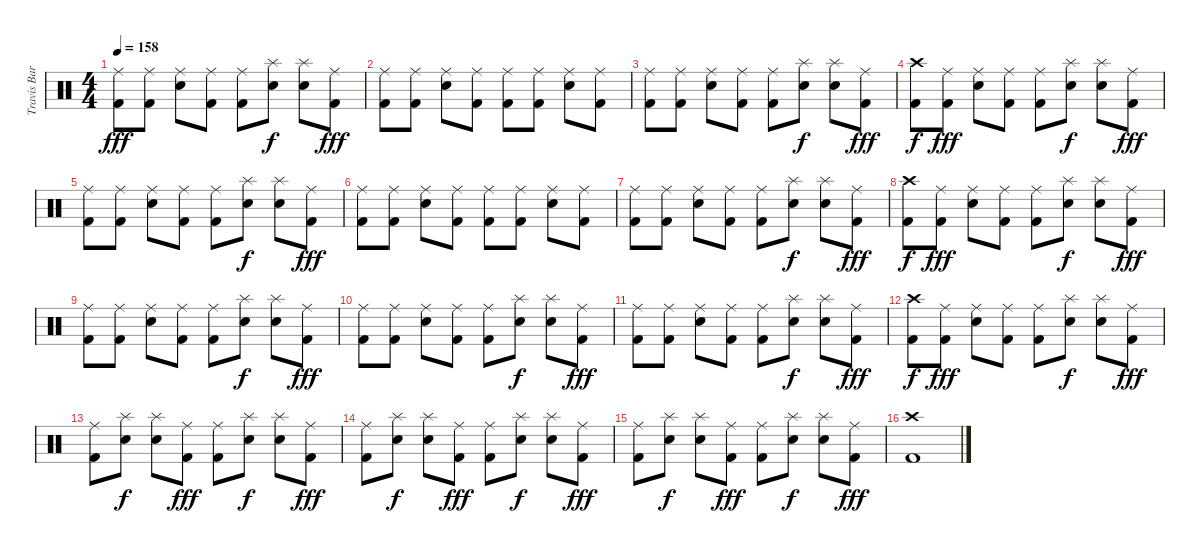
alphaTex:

\track ("Travis Barker - Drums" "Travis Bar") {instrument percussion}
\staff {score}
\articulation defaults
\ts (4 4)
\tempo 158
\clef neutral
\ks c
("Ride (middle)" "Kick (hit) 2").8{dy fff} ("Ride (middle)" "Kick (hit) 2").8 ("Ride (middle)" "Electric Snare (hit)").8 ("Ride (middle)" "Kick (hit) 2").8 ("Ride (middle)" "Kick (hit) 2").8 ("Splash (hit)" "Electric Snare (hit)").8{dy f} ("Splash (hit)" "Electric Snare (hit)").8 ("Ride (middle)" "Kick (hit) 2").8{dy fff} |
("Ride (middle)" "Kick (hit) 2").8 ("Ride (middle)" "Kick (hit) 2").8 ("Ride (middle)" "Electric Snare (hit)").8 ("Ride (middle)" "Kick (hit) 2").8 ("Ride (middle)" "Kick (hit) 2").8 ("Ride (middle)" "Kick (hit) 2").8 ("Ride (middle)" "Electric Snare (hit)").8 ("Ride (middle)" "Kick (hit) 2").8 |
("Ride (middle)" "Kick (hit) 2").8 ("Ride (middle)" "Kick (hit) 2").8 ("Ride (middle)" "Electric Snare (hit)").8 ("Ride (middle)" "Kick (hit) 2").8 ("Ride (middle)" "Kick (hit) 2").8 ("Splash (hit)" "Electric Snare (hit)").8{dy f} ("Splash (hit)" "Electric Snare (hit)").8 ("Ride (middle)" "Kick (hit) 2").8{dy fff} |
("Crash high (hit)" "Kick (hit) 2").8{dy f} ("Ride (middle)" "Kick (hit) 2").8{dy fff} ("Ride (middle)" "Electric Snare (hit)").8 ("Ride (middle)" "Kick (hit) 2").8 ("Ride (middle)" "Kick (hit) 2").8 ("Splash (hit)" "Electric Snare (hit)").8{dy f} ("Splash (hit)" "Electric Snare (hit)").8 ("Ride (middle)" "Kick (hit) 2").8{dy fff} |
("Ride (middle)" "Kick (hit) 2").8 ("Ride (middle)" "Kick (hit) 2").8 ("Ride (middle)" "Electric Snare (hit)").8 ("Ride (middle)" "Kick (hit) 2").8 ("Ride (middle)" "Kick (hit) 2").8 ("Splash (hit)" "Electric Snare (hit)").8{dy f} ("Splash (hit)" "Electric Snare (hit)").8 ("Ride (middle)" "Kick (hit) 2").8{dy fff} |
("Ride (middle)" "Kick (hit) 2").8 ("Ride (middle)" "Kick (hit) 2").8 ("Ride (middle)" "Electric Snare (hit)").8 ("Ride (middle)" "Kick (hit) 2").8 ("Ride (middle)" "Kick (hit) 2").8 ("Ride (middle)" "Kick (hit) 2").8 ("Ride (middle)" "Electric Snare (hit)").8 ("Ride (middle)" "Kick (hit) 2").8 |
("Ride (middle)" "Kick (hit) 2").8 ("Ride (middle)" "Kick (hit) 2").8 ("Ride (middle)" "Electric Snare (hit)").8 ("Ride (middle)" "Kick (hit) 2").8 ("Ride (middle)" "Kick (hit) 2").8 ("Splash (hit)" "Electric Snare (hit)").8{dy f} ("Splash (hit)" "Electric Snare (hit)").8 ("Ride (middle)" "Kick (hit) 2").8{dy fff} |
("Crash high (hit)" "Kick (hit) 2").8{dy f} ("Ride (middle)" "Kick (hit) 2").8{dy fff} ("Ride (middle)" "Electric Snare (hit)").8 ("Ride (middle)" "Kick (hit) 2").8 ("Ride (middle)" "Kick (hit) 2").8 ("Splash (hit)" "Electric Snare (hit)").8{dy f} ("Splash (hit)" "Electric Snare (hit)").8 ("Ride (middle)" "Kick (hit) 2").8{dy fff} |
("Ride (middle)" "Kick (hit) 2").8 ("Ride (middle)" "Kick (hit) 2").8 ("Ride (middle)" "Electric Snare (hit)").8 ("Ride (middle)" "Kick (hit) 2").8 ("Ride (middle)" "Kick (hit) 2").8 ("Splash (hit)" "Electric Snare (hit)").8{dy f} ("Splash (hit)" "Electric Snare (hit)").8 ("Ride (middle)" "Kick (hit) 2").8{dy fff} |
("Ride (middle)" "Kick (hit) 2").8 ("Ride (middle)" "Kick (hit) 2").8 ("Ride (middle)" "Electric Snare (hit)").8 ("Ride (middle)" "Kick (hit) 2").8 ("Ride (middle)" "Kick (hit) 2").8 ("Splash (hit)" "Electric Snare (hit)").8{dy f} ("Splash (hit)" "Electric Snare (hit)").8 ("Ride (middle)" "Kick (hit) 2").8{dy fff} |
("Ride (middle)" "Kick (hit) 2").8 ("Ride (middle)" "Kick (hit) 2").8 ("Ride (middle)" "Electric Snare (hit)").8 ("Ride (middle)" "Kick (hit) 2").8 ("Ride (middle)" "Kick (hit) 2").8 ("Splash (hit)" "Electric Snare (hit)").8{dy f} ("Splash (hit)" "Electric Snare (hit)").8 ("Ride (middle)" "Kick (hit) 2").8{dy fff} |
("Crash high (hit)" "Kick (hit) 2").8{dy f} ("Ride (middle)" "Kick (hit) 2").8{dy fff} ("Ride (middle)" "Electric Snare (hit)").8 ("Ride (middle)" "Kick (hit) 2").8 ("Ride (middle)" "Kick (hit) 2").8 ("Splash (hit)" "Electric Snare (hit)").8{dy f} ("Splash (hit)" "Electric Snare (hit)").8 ("Ride (middle)" "Kick (hit) 2").8{dy fff} |
("Ride (middle)" "Kick (hit) 2").8 ("Splash (hit)" "Electric Snare (hit)").8{dy f} ("Splash (hit)" "Electric Snare (hit)").8 ("Ride (middle)" "Kick (hit) 2").8{dy fff} ("Ride (middle)" "Kick (hit) 2").8 ("Splash (hit)" "Electric Snare (hit)").8{dy f} ("Splash (hit)" "Electric Snare (hit)").8 ("Ride (middle)" "Kick (hit) 2").8{dy fff} |
("Ride (middle)" "Kick (hit) 2").8 ("Splash (hit)" "Electric Snare (hit)").8{dy f} ("Splash (hit)" "Electric Snare (hit)").8 ("Ride (middle)" "Kick (hit) 2").8{dy fff} ("Ride (middle)" "Kick (hit) 2").8 ("Splash (hit)" "Electric Snare (hit)").8{dy f} ("Splash (hit)" "Electric Snare (hit)").8 ("Ride (middle)" "Kick (hit) 2").8{dy fff} |
("Ride (middle)" "Kick (hit) 2").8 ("Splash (hit)" "Electric Snare (hit)").8{dy f} ("Splash (hit)" "Electric Snare (hit)").8 ("Ride (middle)" "Kick (hit) 2").8{dy fff} ("Ride (middle)" "Kick (hit) 2").8 ("Splash (hit)" "Electric Snare (hit)").8{dy f} ("Splash (hit)" "Electric Snare (hit)").8 ("Ride (middle)" "Kick (hit) 2").8{dy fff} |
("Crash high (hit)" "Kick (hit) 2").1
